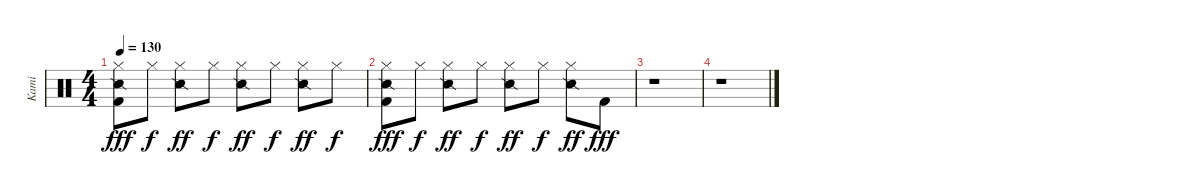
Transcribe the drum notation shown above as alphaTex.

\track ("Kami" "Kami") {instrument percussion}
\staff {score}
\articulation defaults
\ts (4 4)
\tempo 130
\clef neutral
\ks c
("Hi-Hat (closed)" "Snare (side stick) 2" "Kick (hit) 2").8{dy fff} "Hi-Hat (closed)".8{dy f} ("Hi-Hat (closed)" "Snare (side stick) 2").8{dy ff} "Hi-Hat (closed)".8{dy f} ("Hi-Hat (closed)" "Snare (side stick) 2").8{dy ff} "Hi-Hat (closed)".8{dy f} ("Hi-Hat (closed)" "Snare (side stick) 2").8{dy ff} "Hi-Hat (closed)".8{dy f} |
("Hi-Hat (closed)" "Snare (side stick) 2" "Kick (hit) 2").8{dy fff} "Hi-Hat (closed)".8{dy f} ("Hi-Hat (closed)" "Snare (side stick) 2").8{dy ff} "Hi-Hat (closed)".8{dy f} ("Hi-Hat (closed)" "Snare (side stick) 2").8{dy ff} "Hi-Hat (closed)".8{dy f} ("Hi-Hat (closed)" "Snare (side stick) 2").8{dy ff} "Kick (hit) 2".8{dy fff} |
r.1 |
r.1
